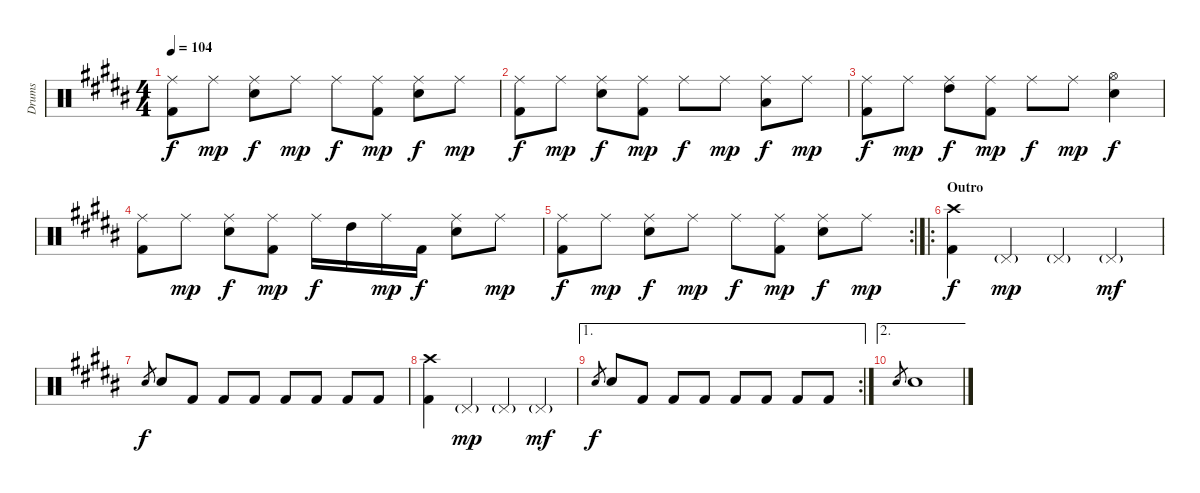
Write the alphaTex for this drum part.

\track ("Drums" "Drums") {instrument percussion}
\staff {score}
\articulation defaults
\ts (4 4)
\tempo 104
\clef neutral
\ks b
("Kick (hit) 2" "Ride (middle)").8{dy f} "Ride (middle)".8{dy mp} ("Ride (middle)" "Snare (hit) 2").8{dy f} "Ride (middle)".8{dy mp} "Ride (middle)".8{dy f} ("Kick (hit) 2" "Ride (middle)").8{dy mp} ("Ride (middle)" "Snare (hit) 2").8{dy f} "Ride (middle)".8{dy mp} |
("Kick (hit) 2" "Ride (middle)").8{dy f} "Ride (middle)".8{dy mp} ("Ride (middle)" "Snare (hit) 2").8{dy f} ("Kick (hit) 2" "Ride (middle)").8{dy mp} "Ride (middle)".8{dy f} "Ride (middle)".8{dy mp} ("Ride (middle)" "Low Tom (hit)").8{dy f} "Ride (middle)".8{dy mp} |
("Kick (hit) 2" "Ride (middle)").8{dy f} "Ride (middle)".8{dy mp} ("Ride (middle)" "High Tom (hit)").8{dy f} ("Kick (hit) 2" "Ride (middle)").8{dy mp} "Ride (middle)".8{dy f} "Ride (middle)".8{dy mp} ("Snare (hit) 2" "Hi-Hat (open)").4{dy f} |
("Kick (hit) 2" "Ride (middle)").8 "Ride (middle)".8{dy mp} ("Ride (middle)" "Snare (hit) 2").8{dy f} ("Kick (hit) 2" "Ride (middle)").8{dy mp} "Ride (middle)".16{dy f} "High Tom (hit)".16 "Ride (middle)".16{dy mp} "Kick (hit) 2".16{dy f} ("Ride (middle)" "Snare (hit) 2").8 "Ride (middle)".8{dy mp} |
\rc 2
("Kick (hit) 2" "Ride (middle)").8{dy f} "Ride (middle)".8{dy mp} ("Ride (middle)" "Snare (hit) 2").8{dy f} "Ride (middle)".8{dy mp} "Ride (middle)".8{dy f} ("Kick (hit) 2" "Ride (middle)").8{dy mp} ("Ride (middle)" "Snare (hit) 2").8{dy f} "Ride (middle)".8{dy mp} |
\ro
\section ("" "Outro")
("Kick (hit) 2" "Crash high (hit)").4{dy f} "Pedal Hi-Hat (hit)"{g}.4{dy mp} "Pedal Hi-Hat (hit)"{g}.4 "Pedal Hi-Hat (hit)"{g}.4{dy mf} |
"Snare (hit) 2".8{gr dy f} "Snare (hit) 2".8 "Kick (hit) 2".8 "Kick (hit) 2".8 "Kick (hit) 2".8 "Kick (hit) 2".8 "Kick (hit) 2".8 "Kick (hit) 2".8 "Kick (hit) 2".8 |
("Kick (hit) 2" "Crash high (hit)").4 "Pedal Hi-Hat (hit)"{g}.4{dy mp} "Pedal Hi-Hat (hit)"{g}.4 "Pedal Hi-Hat (hit)"{g}.4{dy mf} |
\ae 1
\rc 2 "Snare (hit) 2".8{gr dy f} "Snare (hit) 2".8 "Kick (hit) 2".8 "Kick (hit) 2".8 "Kick (hit) 2".8 "Kick (hit) 2".8 "Kick (hit) 2".8 "Kick (hit) 2".8 "Kick (hit) 2".8
|
\ae 2 "Snare (hit) 2".8{gr} "Snare (hit) 2".1
